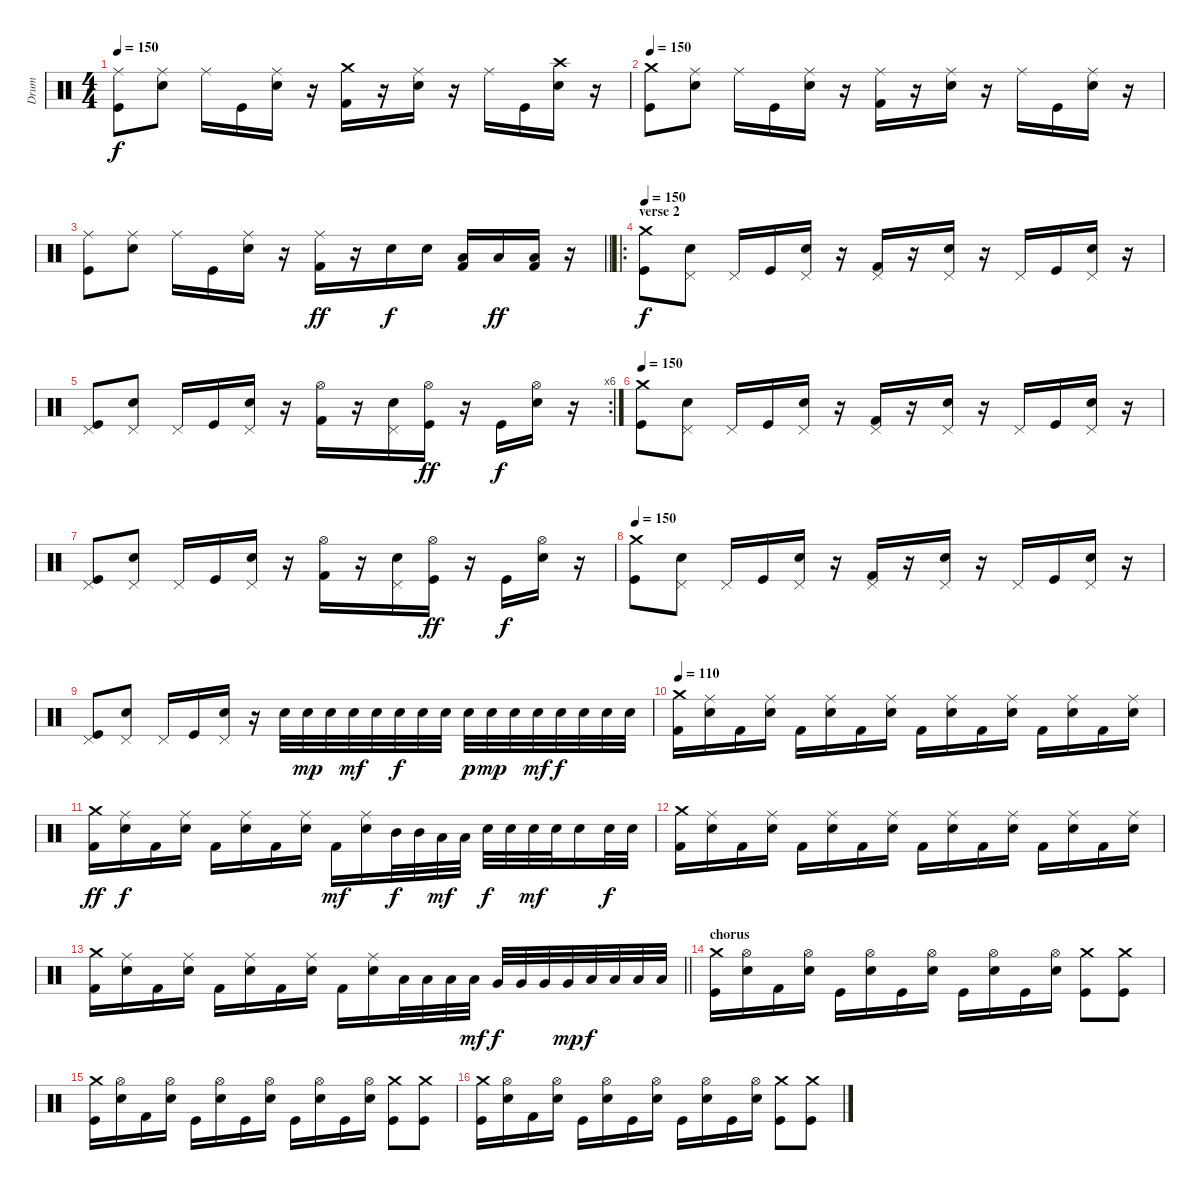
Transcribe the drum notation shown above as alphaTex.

\track ("Drum" "Drum") {instrument percussion}
\staff {score}
\articulation defaults
\ts (4 4)
\tempo 150
\clef neutral
\ks c
("Ride (middle)" "Kick (hit)").8{dy f} ("Ride (middle)" "Snare (hit) 2").8 "Ride (middle)".16 "Kick (hit)".16 ("Ride (middle)" "Snare (hit) 2").16 r.16 ("Crash medium (hit)" "Kick (hit) 2").16 r.16 ("Ride (middle)" "Snare (hit) 2").16 r.16 "Ride (middle)".16 "Kick (hit)".16 ("Crash high (hit)" "Snare (hit) 2").16 r.16 |
\tempo 150
("Crash medium (hit)" "Kick (hit)").8 ("Ride (middle)" "Snare (hit) 2").8 "Ride (middle)".16 "Kick (hit)".16 ("Ride (middle)" "Snare (hit) 2").16 r.16 ("Ride (middle)" "Kick (hit) 2").16 r.16 ("Ride (middle)" "Snare (hit) 2").16 r.16 "Ride (middle)".16 "Kick (hit)".16 ("Ride (middle)" "Snare (hit) 2").16 r.16 |
\barLineRight lightlight
("Ride (middle)" "Kick (hit)").8 ("Ride (middle)" "Snare (hit) 2").8 "Ride (middle)".16 "Kick (hit)".16 ("Ride (middle)" "Snare (hit) 2").16 r.16 ("Ride (middle)" "Kick (hit) 2").16{dy ff} r.16 "Snare (hit) 2".16{dy f} "Snare (hit) 2".16 ("Low Tom (hit)" "Kick (hit) 2").16 "Low Tom (hit)".16{dy ff} ("Low Tom (hit)" "Kick (hit) 2").16 r.16 |
\ro
\section ("" "verse 2")
\tempo 150
("Crash medium (hit)" "Kick (hit)").8{dy f} ("Pedal Hi-Hat (hit)" "Snare (hit) 2").8 "Pedal Hi-Hat (hit)".16 "Kick (hit)".16 ("Pedal Hi-Hat (hit)" "Snare (hit) 2").16 r.16 ("Pedal Hi-Hat (hit)" "Kick (hit) 2").16 r.16 ("Pedal Hi-Hat (hit)" "Snare (hit) 2").16 r.16 "Pedal Hi-Hat (hit)".16 "Kick (hit)".16 ("Pedal Hi-Hat (hit)" "Snare (hit) 2").16 r.16 |
\rc 6
("Pedal Hi-Hat (hit)" "Kick (hit)").8 ("Pedal Hi-Hat (hit)" "Snare (hit) 2").8 "Pedal Hi-Hat (hit)".16 "Kick (hit)".16 ("Pedal Hi-Hat (hit)" "Snare (hit) 2").16 r.16 ("Hi-Hat (open)" "Kick (hit) 2").16 r.16 ("Pedal Hi-Hat (hit)" "Snare (hit) 2").16 ("Hi-Hat (open)" "Kick (hit)").16{dy ff} r.16 "Kick (hit)".16{dy f} ("Hi-Hat (open)" "Snare (hit) 2").16 r.16 |
\tempo 150
("Crash medium (hit)" "Kick (hit)").8 ("Pedal Hi-Hat (hit)" "Snare (hit) 2").8 "Pedal Hi-Hat (hit)".16 "Kick (hit)".16 ("Pedal Hi-Hat (hit)" "Snare (hit) 2").16 r.16 ("Pedal Hi-Hat (hit)" "Kick (hit) 2").16 r.16 ("Pedal Hi-Hat (hit)" "Snare (hit) 2").16 r.16 "Pedal Hi-Hat (hit)".16 "Kick (hit)".16 ("Pedal Hi-Hat (hit)" "Snare (hit) 2").16 r.16 |
("Pedal Hi-Hat (hit)" "Kick (hit)").8 ("Pedal Hi-Hat (hit)" "Snare (hit) 2").8 "Pedal Hi-Hat (hit)".16 "Kick (hit)".16 ("Pedal Hi-Hat (hit)" "Snare (hit) 2").16 r.16 ("Hi-Hat (open)" "Kick (hit) 2").16 r.16 ("Pedal Hi-Hat (hit)" "Snare (hit) 2").16 ("Hi-Hat (open)" "Kick (hit)").16{dy ff} r.16 "Kick (hit)".16{dy f} ("Hi-Hat (open)" "Snare (hit) 2").16 r.16 |
\tempo 150
("Crash medium (hit)" "Kick (hit)").8 ("Pedal Hi-Hat (hit)" "Snare (hit) 2").8 "Pedal Hi-Hat (hit)".16 "Kick (hit)".16 ("Pedal Hi-Hat (hit)" "Snare (hit) 2").16 r.16 ("Pedal Hi-Hat (hit)" "Kick (hit) 2").16 r.16 ("Pedal Hi-Hat (hit)" "Snare (hit) 2").16 r.16 "Pedal Hi-Hat (hit)".16 "Kick (hit)".16 ("Pedal Hi-Hat (hit)" "Snare (hit) 2").16 r.16 |
("Pedal Hi-Hat (hit)" "Kick (hit)").8 ("Pedal Hi-Hat (hit)" "Snare (hit) 2").8 "Pedal Hi-Hat (hit)".16 "Kick (hit)".16 ("Pedal Hi-Hat (hit)" "Snare (hit) 2").16 r.16 "Snare (hit) 2".32 "Snare (hit) 2".32{dy mp} "Snare (hit) 2".32 "Snare (hit) 2".32{dy mf} "Snare (hit) 2".32 "Snare (hit) 2".32{dy f} "Snare (hit) 2".32 "Snare (hit) 2".32 "Snare (hit) 2".32{dy p} "Snare (hit) 2".32{dy mp} "Snare (hit) 2".32 "Snare (hit) 2".32{dy mf} "Snare (hit) 2".32{dy f} "Snare (hit) 2".32 "Snare (hit) 2".32 "Snare (hit) 2".32 |
\tempo 110
("Crash medium (hit)" "Kick (hit) 2").16 ("Ride (middle)" "Snare (hit) 2").16 "Kick (hit) 2".16 ("Ride (middle)" "Snare (hit) 2").16 "Kick (hit) 2".16 ("Ride (middle)" "Snare (hit) 2").16 "Kick (hit) 2".16 ("Ride (middle)" "Snare (hit) 2").16 "Kick (hit) 2".16 ("Ride (middle)" "Snare (hit) 2").16 "Kick (hit) 2".16 ("Ride (middle)" "Snare (hit) 2").16 "Kick (hit) 2".16 ("Ride (middle)" "Snare (hit) 2").16 "Kick (hit) 2".16 ("Ride (middle)" "Snare (hit) 2").16 |
("Crash medium (hit)" "Kick (hit) 2").16{dy ff} ("Ride (middle)" "Snare (hit) 2").16{dy f} "Kick (hit) 2".16 ("Ride (middle)" "Snare (hit) 2").16 "Kick (hit) 2".16 ("Ride (middle)" "Snare (hit) 2").16 "Kick (hit) 2".16 ("Ride (middle)" "Snare (hit) 2").16 "Kick (hit) 2".16{dy mf} ("Ride (middle)" "Snare (hit) 2").16 "Mid Tom (hit)".32{dy f} "Mid Tom (hit)".32 "Low Tom (hit)".32{dy mf} "Low Tom (hit)".32 "Snare (hit) 2".32{dy f} "Snare (hit) 2".32 "Snare (hit) 2".32{dy mf} "Snare (hit) 2".32 "Snare (hit) 2".16 "Snare (hit) 2".32{dy f} "Snare (hit) 2".32 |
("Crash medium (hit)" "Kick (hit) 2").16 ("Ride (middle)" "Snare (hit) 2").16 "Kick (hit) 2".16 ("Ride (middle)" "Snare (hit) 2").16 "Kick (hit) 2".16 ("Ride (middle)" "Snare (hit) 2").16 "Kick (hit) 2".16 ("Ride (middle)" "Snare (hit) 2").16 "Kick (hit) 2".16 ("Ride (middle)" "Snare (hit) 2").16 "Kick (hit) 2".16 ("Ride (middle)" "Snare (hit) 2").16 "Kick (hit) 2".16 ("Ride (middle)" "Snare (hit) 2").16 "Kick (hit) 2".16 ("Ride (middle)" "Snare (hit) 2").16 |
\barLineRight lightlight
("Crash medium (hit)" "Kick (hit) 2").16 ("Ride (middle)" "Snare (hit) 2").16 "Kick (hit) 2".16 ("Ride (middle)" "Snare (hit) 2").16 "Kick (hit) 2".16 ("Ride (middle)" "Snare (hit) 2").16 "Kick (hit) 2".16 ("Ride (middle)" "Snare (hit) 2").16 "Kick (hit) 2".16 ("Ride (middle)" "Snare (hit) 2").16 "Low Tom (hit)".32 "Low Tom (hit)".32 "Low Tom (hit)".32 "Low Tom (hit)".32{dy mf} "Very Low Tom (hit)".32{dy f} "Very Low Tom (hit)".32 "Very Low Tom (hit)".32 "Very Low Tom (hit)".32{dy mp} "Low Floor Tom (hit)".32{dy f} "Low Floor Tom (hit)".32 "Low Floor Tom (hit)".32 "Low Floor Tom (hit)".32 |
\section ("" "chorus")
("Crash medium (hit)" "Kick (hit)").16 ("Hi-Hat (open)" "Snare (hit) 2").16 "Kick (hit) 2".16 ("Hi-Hat (open)" "Snare (hit) 2").16 "Kick (hit)".16 ("Hi-Hat (open)" "Snare (hit) 2").16 "Kick (hit)".16 ("Hi-Hat (open)" "Snare (hit) 2").16 "Kick (hit)".16 ("Hi-Hat (open)" "Snare (hit) 2").16 "Kick (hit)".16 ("Hi-Hat (open)" "Snare (hit) 2").16 ("Crash medium (hit)" "Kick (hit)").8 ("Crash medium (hit)" "Kick (hit)").8 |
("Crash medium (hit)" "Kick (hit)").16 ("Hi-Hat (open)" "Snare (hit) 2").16 "Kick (hit) 2".16 ("Hi-Hat (open)" "Snare (hit) 2").16 "Kick (hit)".16 ("Hi-Hat (open)" "Snare (hit) 2").16 "Kick (hit)".16 ("Hi-Hat (open)" "Snare (hit) 2").16 "Kick (hit)".16 ("Hi-Hat (open)" "Snare (hit) 2").16 "Kick (hit)".16 ("Hi-Hat (open)" "Snare (hit) 2").16 ("Crash medium (hit)" "Kick (hit)").8 ("Crash medium (hit)" "Kick (hit)").8 |
("Crash medium (hit)" "Kick (hit)").16 ("Hi-Hat (open)" "Snare (hit) 2").16 "Kick (hit) 2".16 ("Hi-Hat (open)" "Snare (hit) 2").16 "Kick (hit)".16 ("Hi-Hat (open)" "Snare (hit) 2").16 "Kick (hit)".16 ("Hi-Hat (open)" "Snare (hit) 2").16 "Kick (hit)".16 ("Hi-Hat (open)" "Snare (hit) 2").16 "Kick (hit)".16 ("Hi-Hat (open)" "Snare (hit) 2").16 ("Crash medium (hit)" "Kick (hit)").8 ("Crash medium (hit)" "Kick (hit)").8
